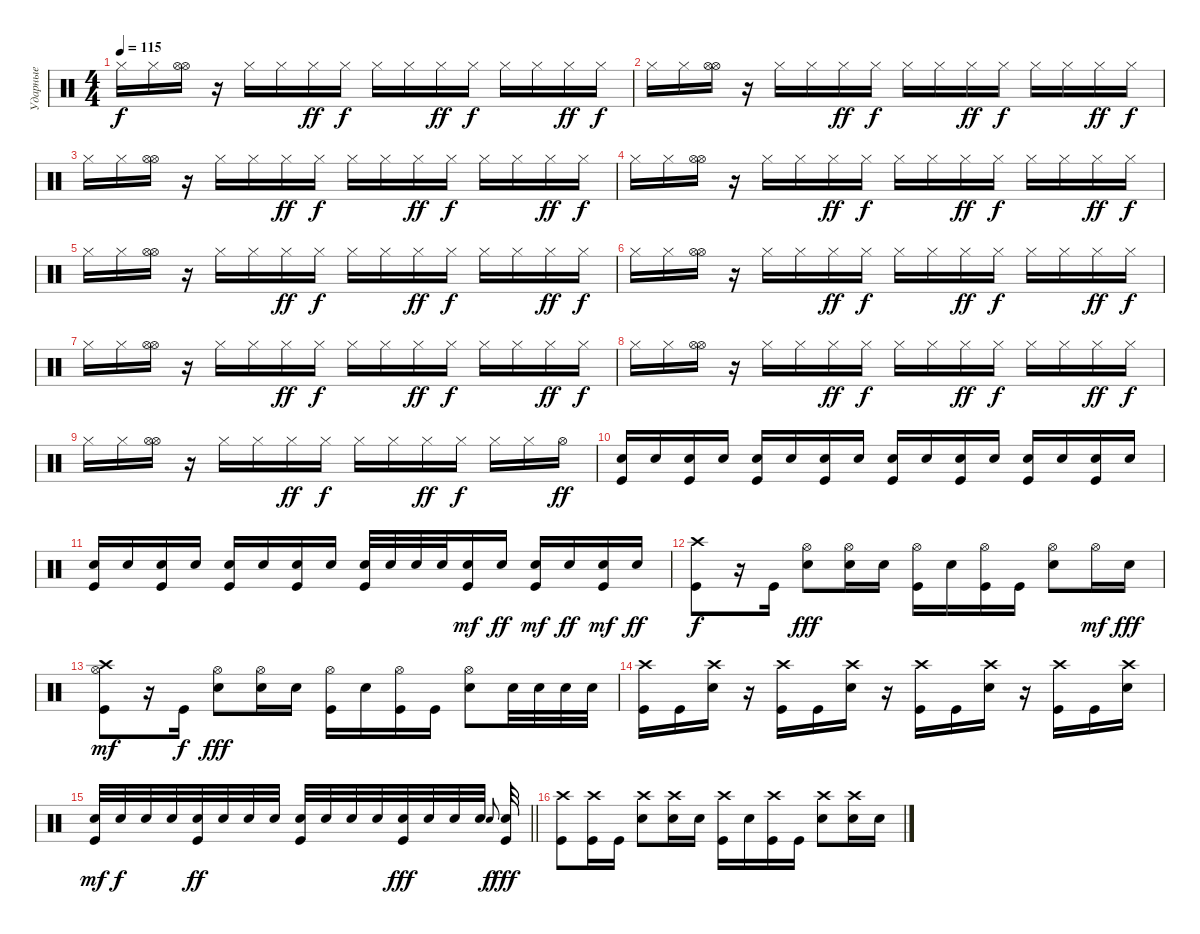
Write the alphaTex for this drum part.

\track ("Ударные" "Ударные") {instrument percussion}
\staff {score}
\articulation defaults
\ts (4 4)
\tempo 115
\clef neutral
\ks c "Hi-Hat (closed)".16{dy f} "Hi-Hat (closed)".16
("Hi-Hat (open)" "Hi-Hat (open)").16 r.16 "Hi-Hat (closed)".16 "Hi-Hat (closed)".16 "Hi-Hat (closed)".16{dy ff} "Hi-Hat (closed)".16{dy f} "Hi-Hat (closed)".16 "Hi-Hat (closed)".16 "Hi-Hat (closed)".16{dy ff} "Hi-Hat (closed)".16{dy f} "Hi-Hat (closed)".16 "Hi-Hat (closed)".16 "Hi-Hat (closed)".16{dy ff} "Hi-Hat (closed)".16{dy f} |
"Hi-Hat (closed)".16 "Hi-Hat (closed)".16 ("Hi-Hat (open)" "Hi-Hat (open)").16 r.16 "Hi-Hat (closed)".16 "Hi-Hat (closed)".16 "Hi-Hat (closed)".16{dy ff} "Hi-Hat (closed)".16{dy f} "Hi-Hat (closed)".16 "Hi-Hat (closed)".16 "Hi-Hat (closed)".16{dy ff} "Hi-Hat (closed)".16{dy f} "Hi-Hat (closed)".16 "Hi-Hat (closed)".16 "Hi-Hat (closed)".16{dy ff} "Hi-Hat (closed)".16{dy f} |
"Hi-Hat (closed)".16 "Hi-Hat (closed)".16 ("Hi-Hat (open)" "Hi-Hat (open)").16 r.16 "Hi-Hat (closed)".16 "Hi-Hat (closed)".16 "Hi-Hat (closed)".16{dy ff} "Hi-Hat (closed)".16{dy f} "Hi-Hat (closed)".16 "Hi-Hat (closed)".16 "Hi-Hat (closed)".16{dy ff} "Hi-Hat (closed)".16{dy f} "Hi-Hat (closed)".16 "Hi-Hat (closed)".16 "Hi-Hat (closed)".16{dy ff} "Hi-Hat (closed)".16{dy f} |
"Hi-Hat (closed)".16 "Hi-Hat (closed)".16 ("Hi-Hat (open)" "Hi-Hat (open)").16 r.16 "Hi-Hat (closed)".16 "Hi-Hat (closed)".16 "Hi-Hat (closed)".16{dy ff} "Hi-Hat (closed)".16{dy f} "Hi-Hat (closed)".16 "Hi-Hat (closed)".16 "Hi-Hat (closed)".16{dy ff} "Hi-Hat (closed)".16{dy f} "Hi-Hat (closed)".16 "Hi-Hat (closed)".16 "Hi-Hat (closed)".16{dy ff} "Hi-Hat (closed)".16{dy f} |
"Hi-Hat (closed)".16 "Hi-Hat (closed)".16 ("Hi-Hat (open)" "Hi-Hat (open)").16 r.16 "Hi-Hat (closed)".16 "Hi-Hat (closed)".16 "Hi-Hat (closed)".16{dy ff} "Hi-Hat (closed)".16{dy f} "Hi-Hat (closed)".16 "Hi-Hat (closed)".16 "Hi-Hat (closed)".16{dy ff} "Hi-Hat (closed)".16{dy f} "Hi-Hat (closed)".16 "Hi-Hat (closed)".16 "Hi-Hat (closed)".16{dy ff} "Hi-Hat (closed)".16{dy f} |
"Hi-Hat (closed)".16 "Hi-Hat (closed)".16 ("Hi-Hat (open)" "Hi-Hat (open)").16 r.16 "Hi-Hat (closed)".16 "Hi-Hat (closed)".16 "Hi-Hat (closed)".16{dy ff} "Hi-Hat (closed)".16{dy f} "Hi-Hat (closed)".16 "Hi-Hat (closed)".16 "Hi-Hat (closed)".16{dy ff} "Hi-Hat (closed)".16{dy f} "Hi-Hat (closed)".16 "Hi-Hat (closed)".16 "Hi-Hat (closed)".16{dy ff} "Hi-Hat (closed)".16{dy f} |
"Hi-Hat (closed)".16 "Hi-Hat (closed)".16 ("Hi-Hat (open)" "Hi-Hat (open)").16 r.16 "Hi-Hat (closed)".16 "Hi-Hat (closed)".16 "Hi-Hat (closed)".16{dy ff} "Hi-Hat (closed)".16{dy f} "Hi-Hat (closed)".16 "Hi-Hat (closed)".16 "Hi-Hat (closed)".16{dy ff} "Hi-Hat (closed)".16{dy f} "Hi-Hat (closed)".16 "Hi-Hat (closed)".16 "Hi-Hat (closed)".16{dy ff} "Hi-Hat (closed)".16{dy f} |
"Hi-Hat (closed)".16 "Hi-Hat (closed)".16 ("Hi-Hat (open)" "Hi-Hat (open)").16 r.16 "Hi-Hat (closed)".16 "Hi-Hat (closed)".16 "Hi-Hat (closed)".16{dy ff} "Hi-Hat (closed)".16{dy f} "Hi-Hat (closed)".16 "Hi-Hat (closed)".16 "Hi-Hat (closed)".16{dy ff} "Hi-Hat (closed)".16{dy f} "Hi-Hat (closed)".16 "Hi-Hat (closed)".16 "Hi-Hat (closed)".16{dy ff} "Hi-Hat (closed)".16{dy f} |
"Hi-Hat (closed)".16 "Hi-Hat (closed)".16 ("Hi-Hat (open)" "Hi-Hat (open)").16 r.16 "Hi-Hat (closed)".16 "Hi-Hat (closed)".16 "Hi-Hat (closed)".16{dy ff} "Hi-Hat (closed)".16{dy f} "Hi-Hat (closed)".16 "Hi-Hat (closed)".16 "Hi-Hat (closed)".16{dy ff} "Hi-Hat (closed)".16{dy f} "Hi-Hat (closed)".16 "Hi-Hat (closed)".16 "Hi-Hat (open)".16{dy ff} |
("Electric Snare (hit)" "Kick (hit)").16{volume 4} "Electric Snare (hit)".16{volume 16} ("Electric Snare (hit)" "Kick (hit)").16 "Electric Snare (hit)".16 ("Electric Snare (hit)" "Kick (hit)").16 "Electric Snare (hit)".16 ("Electric Snare (hit)" "Kick (hit)").16 "Electric Snare (hit)".16 ("Electric Snare (hit)" "Kick (hit)").16 "Electric Snare (hit)".16 ("Electric Snare (hit)" "Kick (hit)").16 "Electric Snare (hit)".16 ("Electric Snare (hit)" "Kick (hit)").16 "Electric Snare (hit)".16 ("Electric Snare (hit)" "Kick (hit)").16 "Electric Snare (hit)".16 |
("Electric Snare (hit)" "Kick (hit)").16 "Electric Snare (hit)".16 ("Electric Snare (hit)" "Kick (hit)").16 "Electric Snare (hit)".16 ("Electric Snare (hit)" "Kick (hit)").16 "Electric Snare (hit)".16 ("Electric Snare (hit)" "Kick (hit)").16 "Electric Snare (hit)".16 ("Electric Snare (hit)" "Kick (hit)").32 "Electric Snare (hit)".32 "Electric Snare (hit)".32 "Electric Snare (hit)".32 ("Electric Snare (hit)" "Kick (hit)").16{dy mf} "Electric Snare (hit)".16{dy ff} ("Electric Snare (hit)" "Kick (hit)").16{dy mf} "Electric Snare (hit)".16{dy ff} ("Electric Snare (hit)" "Kick (hit)").16{dy mf} "Electric Snare (hit)".16{dy ff} |
("Crash high (hit)" "Kick (hit)").8{dy f} r.16 "Kick (hit)".16 ("Hi-Hat (open)" "Electric Snare (hit)").8{dy fff} ("Hi-Hat (open)" "Electric Snare (hit)").16 "Electric Snare (hit)".16 ("Hi-Hat (open)" "Kick (hit)").16 "Electric Snare (hit)".16 ("Hi-Hat (open)" "Kick (hit)").16 "Kick (hit)".16 ("Hi-Hat (open)" "Electric Snare (hit)").8 "Hi-Hat (open)".16{dy mf} "Electric Snare (hit)".16{dy fff} |
("Crash high (hit)" "Hi-Hat (open)" "Kick (hit)").8{dy mf} r.16 "Kick (hit)".16{dy f} ("Hi-Hat (open)" "Electric Snare (hit)").8{dy fff} ("Hi-Hat (open)" "Electric Snare (hit)").16 "Electric Snare (hit)".16 ("Hi-Hat (open)" "Kick (hit)").16 "Electric Snare (hit)".16 ("Hi-Hat (open)" "Kick (hit)").16 "Kick (hit)".16 ("Hi-Hat (open)" "Electric Snare (hit)").8 "Electric Snare (hit)".32 "Electric Snare (hit)".32 "Electric Snare (hit)".32 "Electric Snare (hit)".32 |
("Crash high (hit)" "Kick (hit)").16 "Kick (hit)".16 ("Crash high (hit)" "Electric Snare (hit)").16 r.16 ("Crash high (hit)" "Kick (hit)").16 "Kick (hit)".16 ("Crash high (hit)" "Electric Snare (hit)").16 r.16 ("Crash high (hit)" "Kick (hit)").16 "Kick (hit)".16 ("Crash high (hit)" "Electric Snare (hit)").16 r.16 ("Crash high (hit)" "Kick (hit)").16 "Kick (hit)".16 ("Crash high (hit)" "Electric Snare (hit)").16 |
\barLineRight lightlight
("Kick (hit)" "Electric Snare (hit)").32{dy mf} "Electric Snare (hit)".32{dy f} "Electric Snare (hit)".32 "Electric Snare (hit)".32 ("Kick (hit)" "Electric Snare (hit)").32{dy ff} "Electric Snare (hit)".32 "Electric Snare (hit)".32 "Electric Snare (hit)".32 ("Kick (hit)" "Electric Snare (hit)").32 "Electric Snare (hit)".32 "Electric Snare (hit)".32 "Electric Snare (hit)".32 ("Kick (hit)" "Electric Snare (hit)").32{dy fff} "Electric Snare (hit)".32 "Electric Snare (hit)".32 "Electric Snare (hit)".32 "Electric Snare (hit)".8{gr onbeat dy f} ("Electric Snare (hit)" "Kick (hit)").32{dy fff} |
("Crash high (hit)" "Kick (hit)").8 ("Crash high (hit)" "Kick (hit)").16 "Kick (hit)".16 ("Crash high (hit)" "Electric Snare (hit)").8 ("Crash high (hit)" "Electric Snare (hit)").16 "Electric Snare (hit)".16 ("Crash high (hit)" "Kick (hit)").16 "Electric Snare (hit)".16 ("Crash high (hit)" "Kick (hit)").16 "Kick (hit)".16 ("Crash high (hit)" "Electric Snare (hit)").8 ("Crash high (hit)" "Electric Snare (hit)").16 "Electric Snare (hit)".16
